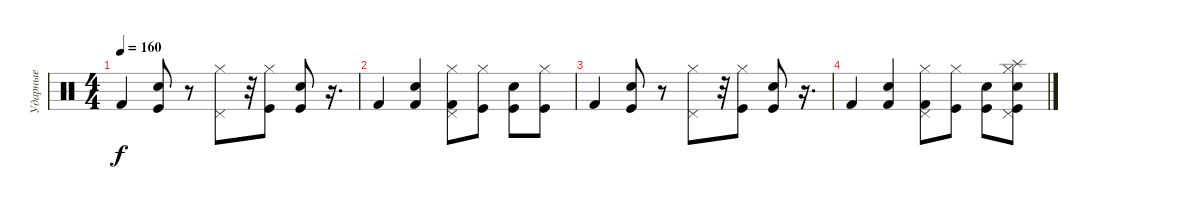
\track ("Ударные" "Ударные") {instrument percussion}
\staff {score}
\articulation defaults
\ts (4 4)
\tempo 160
\clef neutral
\ks c "Kick (hit) 2".4{dy f}
("Kick (hit)" "Snare (hit) 2").8 r.8 ("Hi-Hat (closed)" "Pedal Hi-Hat (hit)").8 r.32 ("Hi-Hat (closed)" "Kick (hit)").8 ("Kick (hit)" "Snare (hit) 2").8 r.16{d} |
"Kick (hit) 2".4 ("Kick (hit) 2" "Snare (hit) 2").4 ("Kick (hit) 2" "Pedal Hi-Hat (hit)" "Hi-Hat (closed)").8 ("Hi-Hat (closed)" "Kick (hit)").8 ("Kick (hit)" "Snare (hit) 2").8 ("Hi-Hat (closed)" "Kick (hit)").8 |
"Kick (hit) 2".4 ("Kick (hit)" "Snare (hit) 2").8 r.8 ("Hi-Hat (closed)" "Pedal Hi-Hat (hit)").8 r.32 ("Hi-Hat (closed)" "Kick (hit)").8 ("Kick (hit)" "Snare (hit) 2").8 r.16{d} |
"Kick (hit) 2".4 ("Kick (hit) 2" "Snare (hit) 2").4 ("Kick (hit) 2" "Pedal Hi-Hat (hit)" "Hi-Hat (closed)").8 ("Hi-Hat (closed)" "Kick (hit)").8 ("Kick (hit)" "Snare (hit) 2").8 ("Hi-Hat (closed)" "Kick (hit)" "Electric Snare (hit)" "Pedal Hi-Hat (hit)" "Splash (hit)").8
